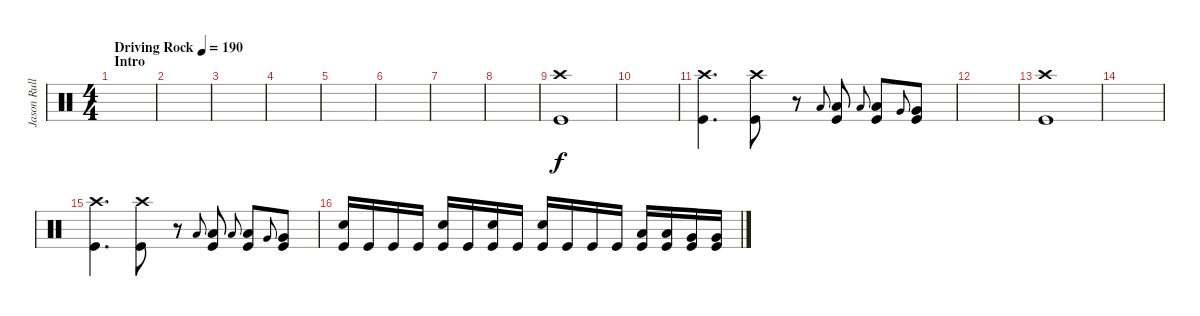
\track ("Jason Rullo - Drums and Percussion" "Jason Rull") {instrument percussion}
\staff {score}
\articulation defaults
\ts (4 4)
\section ("" "Intro")
\tempo (190 "Driving Rock")
\clef neutral
\ks c
|
|
|
|
|
|
|
|
("Crash high (hit)" "Kick (hit)").1 |
|
("Crash high (hit)" "Kick (hit)").4{d} ("Crash high (hit)" "Kick (hit)").8 r.8 "Low Floor Tom (hit)".8{gr onbeat} ("Low Floor Tom (hit)" "Kick (hit)").8 "Low Floor Tom (hit)".8{gr onbeat} ("Low Floor Tom (hit)" "Kick (hit)").8 "Very Low Tom (hit)".8{gr onbeat} ("Very Low Tom (hit)" "Kick (hit)").8 |
|
("Crash high (hit)" "Kick (hit)").1 |
|
("Crash high (hit)" "Kick (hit)").4{d} ("Crash high (hit)" "Kick (hit)").8 r.8 "Low Floor Tom (hit)".8{gr onbeat} ("Low Floor Tom (hit)" "Kick (hit)").8 "Low Floor Tom (hit)".8{gr onbeat} ("Low Floor Tom (hit)" "Kick (hit)").8 "Very Low Tom (hit)".8{gr onbeat} ("Very Low Tom (hit)" "Kick (hit)").8 |
("Snare (hit) 2" "Kick (hit)").16 "Kick (hit)".16 "Kick (hit)".16 "Kick (hit)".16 ("Snare (hit) 2" "Kick (hit)").16 "Kick (hit)".16 ("Snare (hit) 2" "Kick (hit)").16 "Kick (hit)".16 ("Snare (hit) 2" "Kick (hit)").16 "Kick (hit)".16 "Kick (hit)".16 "Kick (hit)".16 ("Low Tom (hit)" "Kick (hit)").16 ("Low Tom (hit)" "Kick (hit)").16 ("Kick (hit)" "Very Low Tom (hit)").16 ("Kick (hit)" "Very Low Tom (hit)").16
